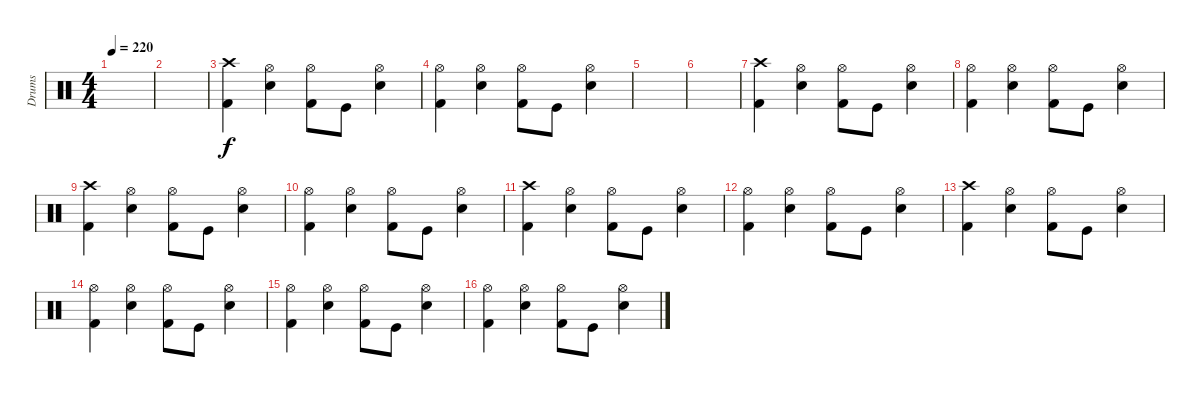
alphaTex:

\track ("Drums" "Drums") {instrument percussion}
\staff {score}
\articulation defaults
\ts (4 4)
\tempo 220
\clef neutral
\ks c
|
|
("Crash high (hit)" "Kick (hit) 2").4 ("Hi-Hat (open)" "Electric Snare (hit)").4 ("Hi-Hat (open)" "Kick (hit) 2").8 "Kick (hit)".8 ("Hi-Hat (open)" "Electric Snare (hit)").4 |
("Hi-Hat (open)" "Kick (hit) 2").4 ("Hi-Hat (open)" "Electric Snare (hit)").4 ("Hi-Hat (open)" "Kick (hit) 2").8 "Kick (hit)".8 ("Hi-Hat (open)" "Electric Snare (hit)").4 |
|
|
("Crash high (hit)" "Kick (hit) 2").4 ("Hi-Hat (open)" "Electric Snare (hit)").4 ("Hi-Hat (open)" "Kick (hit) 2").8 "Kick (hit)".8 ("Hi-Hat (open)" "Electric Snare (hit)").4 |
("Hi-Hat (open)" "Kick (hit) 2").4 ("Hi-Hat (open)" "Electric Snare (hit)").4 ("Hi-Hat (open)" "Kick (hit) 2").8 "Kick (hit)".8 ("Hi-Hat (open)" "Electric Snare (hit)").4 |
("Crash high (hit)" "Kick (hit) 2").4 ("Hi-Hat (open)" "Electric Snare (hit)").4 ("Hi-Hat (open)" "Kick (hit) 2").8 "Kick (hit)".8 ("Hi-Hat (open)" "Electric Snare (hit)").4 |
("Hi-Hat (open)" "Kick (hit) 2").4 ("Hi-Hat (open)" "Electric Snare (hit)").4 ("Hi-Hat (open)" "Kick (hit) 2").8 "Kick (hit)".8 ("Hi-Hat (open)" "Electric Snare (hit)").4 |
("Crash high (hit)" "Kick (hit) 2").4 ("Hi-Hat (open)" "Electric Snare (hit)").4 ("Hi-Hat (open)" "Kick (hit) 2").8 "Kick (hit)".8 ("Hi-Hat (open)" "Electric Snare (hit)").4 |
("Hi-Hat (open)" "Kick (hit) 2").4 ("Hi-Hat (open)" "Electric Snare (hit)").4 ("Hi-Hat (open)" "Kick (hit) 2").8 "Kick (hit)".8 ("Hi-Hat (open)" "Electric Snare (hit)").4 |
("Crash high (hit)" "Kick (hit) 2").4 ("Hi-Hat (open)" "Electric Snare (hit)").4 ("Hi-Hat (open)" "Kick (hit) 2").8 "Kick (hit)".8 ("Hi-Hat (open)" "Electric Snare (hit)").4 |
("Hi-Hat (open)" "Kick (hit) 2").4 ("Hi-Hat (open)" "Electric Snare (hit)").4 ("Hi-Hat (open)" "Kick (hit) 2").8 "Kick (hit)".8 ("Hi-Hat (open)" "Electric Snare (hit)").4 |
("Hi-Hat (open)" "Kick (hit) 2").4 ("Hi-Hat (open)" "Electric Snare (hit)").4 ("Hi-Hat (open)" "Kick (hit) 2").8 "Kick (hit)".8 ("Hi-Hat (open)" "Electric Snare (hit)").4 |
("Hi-Hat (open)" "Kick (hit) 2").4 ("Hi-Hat (open)" "Electric Snare (hit)").4 ("Hi-Hat (open)" "Kick (hit) 2").8 "Kick (hit)".8 ("Hi-Hat (open)" "Electric Snare (hit)").4
